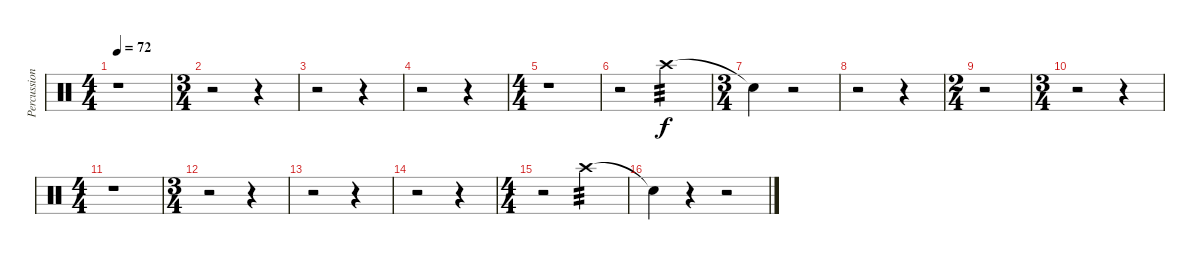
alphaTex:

\track ("Percussion" "Percussion") {instrument percussion}
\staff {score}
\articulation defaults
\ts (4 4)
\tempo 72
\clef neutral
\ks c
r.1{dy f} |
\ts (3 4)
r.2 r.4 |
r.2 r.4 |
r.2 r.4 |
\ts (4 4)
r.1 |
r.2 "Crash high (hit)".2{tp 3} |
\ts (3 4)
"Snare (hit)"{t}.4 r.2 |
r.2 r.4 |
\ts (2 4)
r.2 |
\ts (3 4)
r.2 r.4 |
\ts (4 4)
r.1 |
\ts (3 4)
r.2 r.4 |
r.2 r.4 |
r.2 r.4 |
\ts (4 4)
r.2 "Crash high (hit)".2{tp 3} |
"Snare (hit)"{t}.4 r.4 r.2
